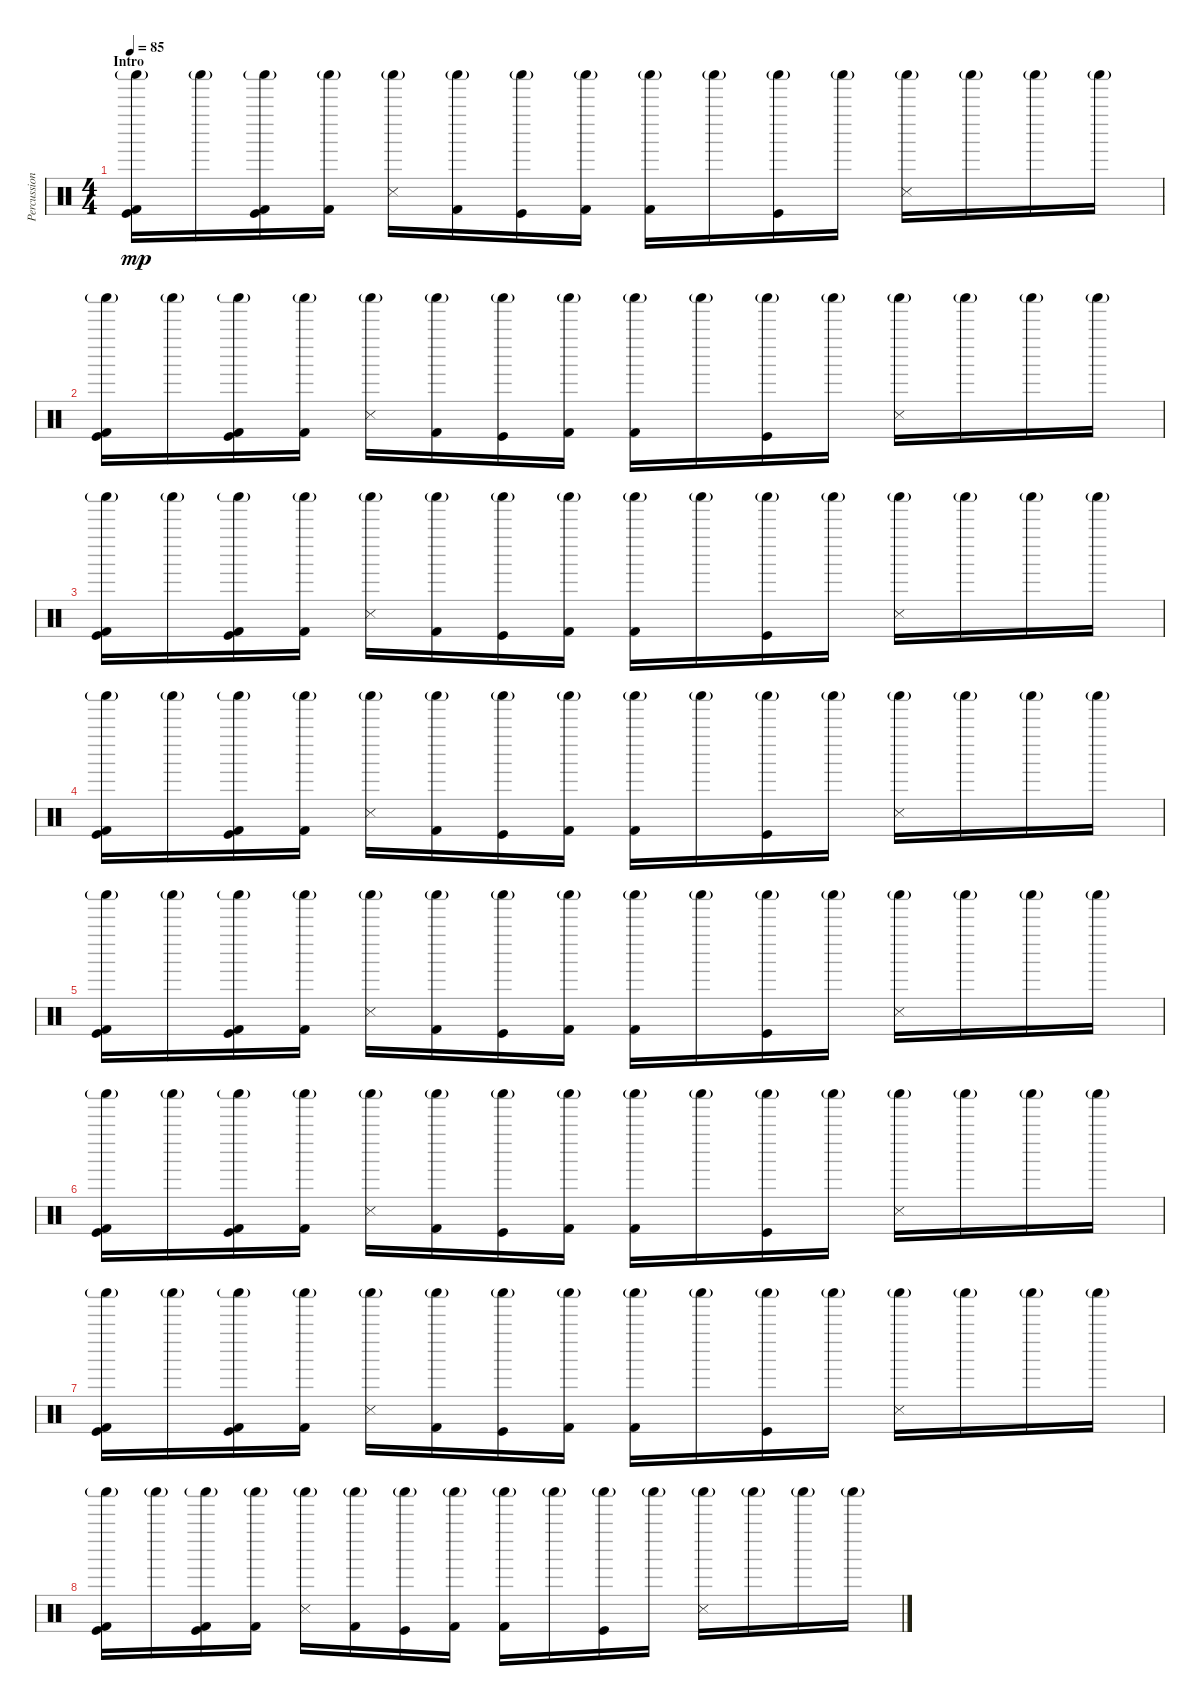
\track ("Percussions" "Percussion") {instrument percussion}
\staff {score}
\articulation defaults
\ts (4 4)
\section ("" "Intro")
\tempo 85
\clef neutral
\ks c
("Shaker (hit)"{g} "Kick (hit) 2" "Kick (hit)").16{dy mp} "Shaker (hit)"{g}.16 ("Shaker (hit)"{g} "Kick (hit) 2" "Kick (hit)").16 ("Shaker (hit)"{g} "Kick (hit) 2").16 ("Shaker (hit)"{g} "Snare (side stick) 3").16 ("Shaker (hit)"{g} "Kick (hit) 2").16 ("Shaker (hit)"{g} "Kick (hit)").16 ("Shaker (hit)"{g} "Kick (hit) 2").16 ("Shaker (hit)"{g} "Kick (hit) 2").16 "Shaker (hit)"{g}.16 ("Shaker (hit)"{g} "Kick (hit)").16 "Shaker (hit)"{g}.16 ("Shaker (hit)"{g} "Snare (side stick) 3").16 "Shaker (hit)"{g}.16 "Shaker (hit)"{g}.16 "Shaker (hit)"{g}.16 |
("Shaker (hit)"{g} "Kick (hit) 2" "Kick (hit)").16 "Shaker (hit)"{g}.16 ("Shaker (hit)"{g} "Kick (hit) 2" "Kick (hit)").16 ("Shaker (hit)"{g} "Kick (hit) 2").16 ("Shaker (hit)"{g} "Snare (side stick) 3").16 ("Shaker (hit)"{g} "Kick (hit) 2").16 ("Shaker (hit)"{g} "Kick (hit)").16 ("Shaker (hit)"{g} "Kick (hit) 2").16 ("Shaker (hit)"{g} "Kick (hit) 2").16 "Shaker (hit)"{g}.16 ("Shaker (hit)"{g} "Kick (hit)").16 "Shaker (hit)"{g}.16 ("Shaker (hit)"{g} "Snare (side stick) 3").16 "Shaker (hit)"{g}.16 "Shaker (hit)"{g}.16 "Shaker (hit)"{g}.16 |
("Shaker (hit)"{g} "Kick (hit) 2" "Kick (hit)").16 "Shaker (hit)"{g}.16 ("Shaker (hit)"{g} "Kick (hit) 2" "Kick (hit)").16 ("Shaker (hit)"{g} "Kick (hit) 2").16 ("Shaker (hit)"{g} "Snare (side stick) 3").16 ("Shaker (hit)"{g} "Kick (hit) 2").16 ("Shaker (hit)"{g} "Kick (hit)").16 ("Shaker (hit)"{g} "Kick (hit) 2").16 ("Shaker (hit)"{g} "Kick (hit) 2").16 "Shaker (hit)"{g}.16 ("Shaker (hit)"{g} "Kick (hit)").16 "Shaker (hit)"{g}.16 ("Shaker (hit)"{g} "Snare (side stick) 3").16 "Shaker (hit)"{g}.16 "Shaker (hit)"{g}.16 "Shaker (hit)"{g}.16 |
("Shaker (hit)"{g} "Kick (hit) 2" "Kick (hit)").16 "Shaker (hit)"{g}.16 ("Shaker (hit)"{g} "Kick (hit) 2" "Kick (hit)").16 ("Shaker (hit)"{g} "Kick (hit) 2").16 ("Shaker (hit)"{g} "Snare (side stick) 3").16 ("Shaker (hit)"{g} "Kick (hit) 2").16 ("Shaker (hit)"{g} "Kick (hit)").16 ("Shaker (hit)"{g} "Kick (hit) 2").16 ("Shaker (hit)"{g} "Kick (hit) 2").16 "Shaker (hit)"{g}.16 ("Shaker (hit)"{g} "Kick (hit)").16 "Shaker (hit)"{g}.16 ("Shaker (hit)"{g} "Snare (side stick) 3").16 "Shaker (hit)"{g}.16 "Shaker (hit)"{g}.16 "Shaker (hit)"{g}.16 |
("Shaker (hit)"{g} "Kick (hit) 2" "Kick (hit)").16 "Shaker (hit)"{g}.16 ("Shaker (hit)"{g} "Kick (hit) 2" "Kick (hit)").16 ("Shaker (hit)"{g} "Kick (hit) 2").16 ("Shaker (hit)"{g} "Snare (side stick) 3").16 ("Shaker (hit)"{g} "Kick (hit) 2").16 ("Shaker (hit)"{g} "Kick (hit)").16 ("Shaker (hit)"{g} "Kick (hit) 2").16 ("Shaker (hit)"{g} "Kick (hit) 2").16 "Shaker (hit)"{g}.16 ("Shaker (hit)"{g} "Kick (hit)").16 "Shaker (hit)"{g}.16 ("Shaker (hit)"{g} "Snare (side stick) 3").16 "Shaker (hit)"{g}.16 "Shaker (hit)"{g}.16 "Shaker (hit)"{g}.16 |
("Shaker (hit)"{g} "Kick (hit) 2" "Kick (hit)").16 "Shaker (hit)"{g}.16 ("Shaker (hit)"{g} "Kick (hit) 2" "Kick (hit)").16 ("Shaker (hit)"{g} "Kick (hit) 2").16 ("Shaker (hit)"{g} "Snare (side stick) 3").16 ("Shaker (hit)"{g} "Kick (hit) 2").16 ("Shaker (hit)"{g} "Kick (hit)").16 ("Shaker (hit)"{g} "Kick (hit) 2").16 ("Shaker (hit)"{g} "Kick (hit) 2").16 "Shaker (hit)"{g}.16 ("Shaker (hit)"{g} "Kick (hit)").16 "Shaker (hit)"{g}.16 ("Shaker (hit)"{g} "Snare (side stick) 3").16 "Shaker (hit)"{g}.16 "Shaker (hit)"{g}.16 "Shaker (hit)"{g}.16 |
("Shaker (hit)"{g} "Kick (hit) 2" "Kick (hit)").16 "Shaker (hit)"{g}.16 ("Shaker (hit)"{g} "Kick (hit) 2" "Kick (hit)").16 ("Shaker (hit)"{g} "Kick (hit) 2").16 ("Shaker (hit)"{g} "Snare (side stick) 3").16 ("Shaker (hit)"{g} "Kick (hit) 2").16 ("Shaker (hit)"{g} "Kick (hit)").16 ("Shaker (hit)"{g} "Kick (hit) 2").16 ("Shaker (hit)"{g} "Kick (hit) 2").16 "Shaker (hit)"{g}.16 ("Shaker (hit)"{g} "Kick (hit)").16 "Shaker (hit)"{g}.16 ("Shaker (hit)"{g} "Snare (side stick) 3").16 "Shaker (hit)"{g}.16 "Shaker (hit)"{g}.16 "Shaker (hit)"{g}.16 |
("Shaker (hit)"{g} "Kick (hit) 2" "Kick (hit)").16 "Shaker (hit)"{g}.16 ("Shaker (hit)"{g} "Kick (hit) 2" "Kick (hit)").16 ("Shaker (hit)"{g} "Kick (hit) 2").16 ("Shaker (hit)"{g} "Snare (side stick) 3").16 ("Shaker (hit)"{g} "Kick (hit) 2").16 ("Shaker (hit)"{g} "Kick (hit)").16 ("Shaker (hit)"{g} "Kick (hit) 2").16 ("Shaker (hit)"{g} "Kick (hit) 2").16 "Shaker (hit)"{g}.16 ("Shaker (hit)"{g} "Kick (hit)").16 "Shaker (hit)"{g}.16 ("Shaker (hit)"{g} "Snare (side stick) 3").16 "Shaker (hit)"{g}.16 "Shaker (hit)"{g}.16 "Shaker (hit)"{g}.16
